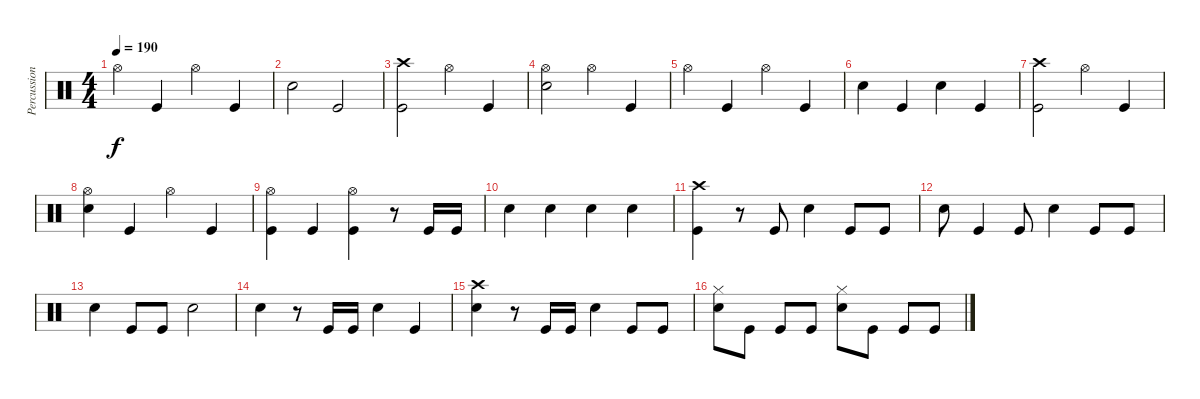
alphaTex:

\track ("Percussion" "Percussion") {instrument percussion}
\staff {score}
\articulation defaults
\ts (4 4)
\tempo 190
\clef neutral
\ks c "Hi-Hat (open)".4{dy f} "Kick (hit)".4 "Hi-Hat (open)".4 "Kick (hit)".4
|
"Electric Snare (hit)".2 "Kick (hit)".2 |
("Crash high (hit)" "Kick (hit)").2 "Hi-Hat (open)".4 "Kick (hit)".4 |
("Hi-Hat (open)" "Electric Snare (hit)").2 "Hi-Hat (open)".4 "Kick (hit)".4 |
"Hi-Hat (open)".4 "Kick (hit)".4 "Hi-Hat (open)".4 "Kick (hit)".4 |
"Electric Snare (hit)".4 "Kick (hit)".4 "Electric Snare (hit)".4 "Kick (hit)".4 |
("Crash high (hit)" "Kick (hit)").2 "Hi-Hat (open)".4 "Kick (hit)".4 |
("Hi-Hat (open)" "Electric Snare (hit)").4 "Kick (hit)".4 "Hi-Hat (open)".4 "Kick (hit)".4 |
("Kick (hit)" "Hi-Hat (open)").4 "Kick (hit)".4 ("Hi-Hat (open)" "Kick (hit)").4 r.8 "Kick (hit)".16 "Kick (hit)".16 |
"Electric Snare (hit)".4 "Electric Snare (hit)".4 "Electric Snare (hit)".4 "Electric Snare (hit)".4 |
("Crash high (hit)" "Kick (hit)").4 r.8 "Kick (hit)".8 "Electric Snare (hit)".4 "Kick (hit)".8 "Kick (hit)".8 |
"Electric Snare (hit)".8 "Kick (hit)".4 "Kick (hit)".8 "Electric Snare (hit)".4 "Kick (hit)".8 "Kick (hit)".8 |
"Electric Snare (hit)".4 "Kick (hit)".8 "Kick (hit)".8 "Electric Snare (hit)".2 |
"Electric Snare (hit)".4 r.8 "Kick (hit)".16 "Kick (hit)".16 "Electric Snare (hit)".4 "Kick (hit)".4 |
("Crash high (hit)" "Electric Snare (hit)").4 r.8 "Kick (hit)".16 "Kick (hit)".16 "Electric Snare (hit)".4 "Kick (hit)".8 "Kick (hit)".8 |
("Hi-Hat (closed)" "Electric Snare (hit)").8 "Kick (hit)".8 "Kick (hit)".8 "Kick (hit)".8 ("Hi-Hat (closed)" "Electric Snare (hit)").8 "Kick (hit)".8 "Kick (hit)".8 "Kick (hit)".8
